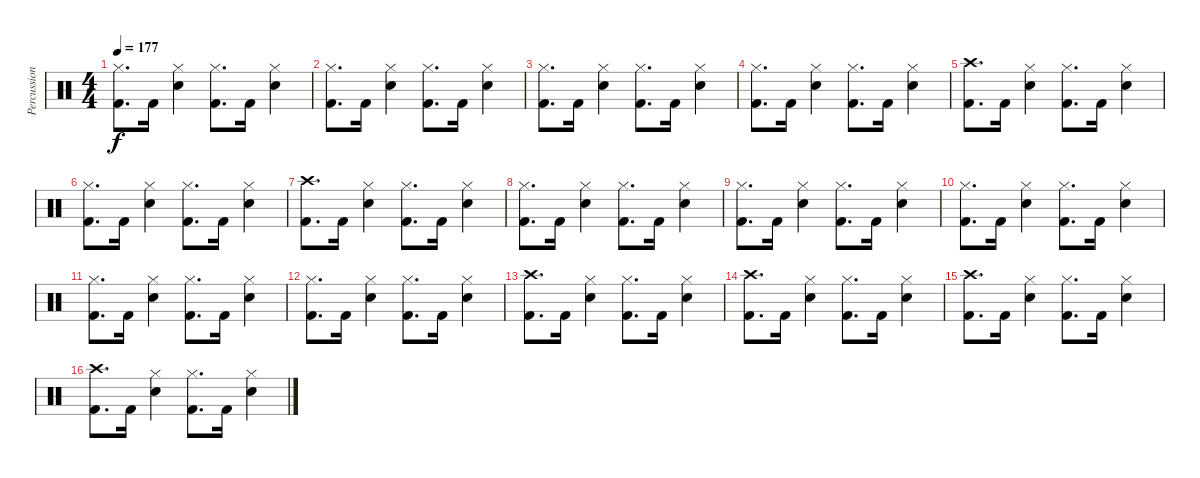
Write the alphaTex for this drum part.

\track ("Percussion" "Percussion") {instrument percussion}
\staff {score}
\articulation defaults
\ts (4 4)
\tempo 177
\clef neutral
\ks c
("Hi-Hat (closed)" "Kick (hit) 2").8{d dy f} "Kick (hit) 2".16 ("Hi-Hat (closed)" "Snare (hit) 2").4 ("Hi-Hat (closed)" "Kick (hit) 2").8{d} "Kick (hit) 2".16 ("Hi-Hat (closed)" "Snare (hit) 2").4 |
("Hi-Hat (closed)" "Kick (hit) 2").8{d} "Kick (hit) 2".16 ("Hi-Hat (closed)" "Snare (hit) 2").4 ("Hi-Hat (closed)" "Kick (hit) 2").8{d} "Kick (hit) 2".16 ("Hi-Hat (closed)" "Snare (hit) 2").4 |
("Hi-Hat (closed)" "Kick (hit) 2").8{d} "Kick (hit) 2".16 ("Hi-Hat (closed)" "Snare (hit) 2").4 ("Hi-Hat (closed)" "Kick (hit) 2").8{d} "Kick (hit) 2".16 ("Hi-Hat (closed)" "Snare (hit) 2").4 |
("Hi-Hat (closed)" "Kick (hit) 2").8{d} "Kick (hit) 2".16 ("Hi-Hat (closed)" "Snare (hit) 2").4 ("Hi-Hat (closed)" "Kick (hit) 2").8{d} "Kick (hit) 2".16 ("Hi-Hat (closed)" "Snare (hit) 2").4 |
("Crash high (hit)" "Kick (hit) 2").8{d} "Kick (hit) 2".16 ("Hi-Hat (closed)" "Snare (hit) 2").4 ("Hi-Hat (closed)" "Kick (hit) 2").8{d} "Kick (hit) 2".16 ("Hi-Hat (closed)" "Snare (hit) 2").4 |
("Hi-Hat (closed)" "Kick (hit) 2").8{d} "Kick (hit) 2".16 ("Hi-Hat (closed)" "Snare (hit) 2").4 ("Hi-Hat (closed)" "Kick (hit) 2").8{d} "Kick (hit) 2".16 ("Hi-Hat (closed)" "Snare (hit) 2").4 |
("Crash high (hit)" "Kick (hit) 2").8{d} "Kick (hit) 2".16 ("Hi-Hat (closed)" "Snare (hit) 2").4 ("Hi-Hat (closed)" "Kick (hit) 2").8{d} "Kick (hit) 2".16 ("Hi-Hat (closed)" "Snare (hit) 2").4 |
("Hi-Hat (closed)" "Kick (hit) 2").8{d} "Kick (hit) 2".16 ("Hi-Hat (closed)" "Snare (hit) 2").4 ("Hi-Hat (closed)" "Kick (hit) 2").8{d} "Kick (hit) 2".16 ("Hi-Hat (closed)" "Snare (hit) 2").4 |
("Hi-Hat (closed)" "Kick (hit) 2").8{d} "Kick (hit) 2".16 ("Hi-Hat (closed)" "Snare (hit) 2").4 ("Hi-Hat (closed)" "Kick (hit) 2").8{d} "Kick (hit) 2".16 ("Hi-Hat (closed)" "Snare (hit) 2").4 |
("Hi-Hat (closed)" "Kick (hit) 2").8{d} "Kick (hit) 2".16 ("Hi-Hat (closed)" "Snare (hit) 2").4 ("Hi-Hat (closed)" "Kick (hit) 2").8{d} "Kick (hit) 2".16 ("Hi-Hat (closed)" "Snare (hit) 2").4 |
("Hi-Hat (closed)" "Kick (hit) 2").8{d} "Kick (hit) 2".16 ("Hi-Hat (closed)" "Snare (hit) 2").4 ("Hi-Hat (closed)" "Kick (hit) 2").8{d} "Kick (hit) 2".16 ("Hi-Hat (closed)" "Snare (hit) 2").4 |
("Hi-Hat (closed)" "Kick (hit) 2").8{d} "Kick (hit) 2".16 ("Hi-Hat (closed)" "Snare (hit) 2").4 ("Hi-Hat (closed)" "Kick (hit) 2").8{d} "Kick (hit) 2".16 ("Hi-Hat (closed)" "Snare (hit) 2").4 |
("Crash high (hit)" "Kick (hit) 2").8{d} "Kick (hit) 2".16 ("Hi-Hat (closed)" "Snare (hit) 2").4 ("Hi-Hat (closed)" "Kick (hit) 2").8{d} "Kick (hit) 2".16 ("Hi-Hat (closed)" "Snare (hit) 2").4 |
("Crash high (hit)" "Kick (hit) 2").8{d} "Kick (hit) 2".16 ("Hi-Hat (closed)" "Snare (hit) 2").4 ("Hi-Hat (closed)" "Kick (hit) 2").8{d} "Kick (hit) 2".16 ("Hi-Hat (closed)" "Snare (hit) 2").4 |
("Crash high (hit)" "Kick (hit) 2").8{d} "Kick (hit) 2".16 ("Hi-Hat (closed)" "Snare (hit) 2").4 ("Hi-Hat (closed)" "Kick (hit) 2").8{d} "Kick (hit) 2".16 ("Hi-Hat (closed)" "Snare (hit) 2").4 |
("Crash high (hit)" "Kick (hit) 2").8{d} "Kick (hit) 2".16 ("Hi-Hat (closed)" "Snare (hit) 2").4 ("Hi-Hat (closed)" "Kick (hit) 2").8{d} "Kick (hit) 2".16 ("Hi-Hat (closed)" "Snare (hit) 2").4
